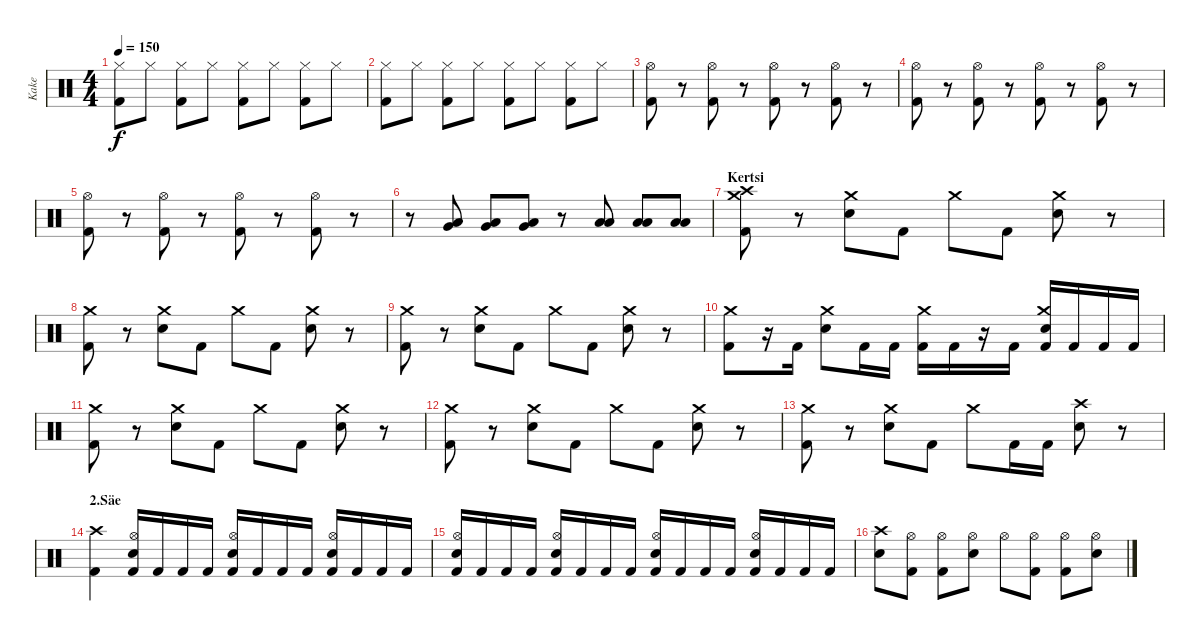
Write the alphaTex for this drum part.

\track ("Kake" "Kake") {instrument percussion}
\staff {score}
\articulation defaults
\ts (4 4)
\tempo 150
\clef neutral
\ks c
("Hi-Hat (closed)" "Kick (hit) 2").8{dy f} "Hi-Hat (closed)".8 ("Hi-Hat (closed)" "Kick (hit) 2").8 "Hi-Hat (closed)".8 ("Hi-Hat (closed)" "Kick (hit) 2").8 "Hi-Hat (closed)".8 ("Hi-Hat (closed)" "Kick (hit) 2").8 "Hi-Hat (closed)".8 |
("Hi-Hat (closed)" "Kick (hit) 2").8 "Hi-Hat (closed)".8 ("Hi-Hat (closed)" "Kick (hit) 2").8 "Hi-Hat (closed)".8 ("Hi-Hat (closed)" "Kick (hit) 2").8 "Hi-Hat (closed)".8 ("Hi-Hat (closed)" "Kick (hit) 2").8 "Hi-Hat (closed)".8 |
("Hi-Hat (open)" "Kick (hit) 2").8 r.8 ("Hi-Hat (open)" "Kick (hit) 2").8 r.8 ("Hi-Hat (open)" "Kick (hit) 2").8 r.8 ("Hi-Hat (open)" "Kick (hit) 2").8 r.8 |
("Hi-Hat (open)" "Kick (hit) 2").8 r.8 ("Hi-Hat (open)" "Kick (hit) 2").8 r.8 ("Hi-Hat (open)" "Kick (hit) 2").8 r.8 ("Hi-Hat (open)" "Kick (hit) 2").8 r.8 |
("Hi-Hat (open)" "Kick (hit) 2").8 r.8 ("Hi-Hat (open)" "Kick (hit) 2").8 r.8 ("Hi-Hat (open)" "Kick (hit) 2").8 r.8 ("Hi-Hat (open)" "Kick (hit) 2").8 r.8 |
r.8 ("Very Low Tom (hit)" "Low Floor Tom (hit)").8 ("Very Low Tom (hit)" "Low Floor Tom (hit)").8 ("Very Low Tom (hit)" "Low Floor Tom (hit)").8 r.8 ("Low Tom (hit)" "Low Floor Tom (hit)").8 ("Low Tom (hit)" "Low Floor Tom (hit)").8 ("Low Tom (hit)" "Low Floor Tom (hit)").8 |
\section ("" "Kertsi")
("Crash medium (hit)" "Crash high (hit)" "Kick (hit) 2").8 r.8 ("Crash medium (hit)" "Electric Snare (hit)").8 "Kick (hit) 2".8 "Crash medium (hit)".8 "Kick (hit) 2".8 ("Crash medium (hit)" "Electric Snare (hit)").8 r.8 |
("Crash medium (hit)" "Kick (hit) 2").8 r.8 ("Crash medium (hit)" "Electric Snare (hit)").8 "Kick (hit) 2".8 "Crash medium (hit)".8 "Kick (hit) 2".8 ("Crash medium (hit)" "Electric Snare (hit)").8 r.8 |
("Crash medium (hit)" "Kick (hit) 2").8 r.8 ("Crash medium (hit)" "Electric Snare (hit)").8 "Kick (hit) 2".8 "Crash medium (hit)".8 "Kick (hit) 2".8 ("Crash medium (hit)" "Electric Snare (hit)").8 r.8 |
("Crash medium (hit)" "Kick (hit) 2").8 r.16 "Kick (hit) 2".16 ("Crash medium (hit)" "Electric Snare (hit)").8 "Kick (hit) 2".16 "Kick (hit) 2".16 ("Crash medium (hit)" "Kick (hit) 2").16 "Kick (hit) 2".16 r.16 "Kick (hit) 2".16 ("Crash medium (hit)" "Electric Snare (hit)" "Kick (hit) 2").16 "Kick (hit) 2".16 "Kick (hit) 2".16 "Kick (hit) 2".16 |
("Crash medium (hit)" "Kick (hit) 2").8 r.8 ("Crash medium (hit)" "Electric Snare (hit)").8 "Kick (hit) 2".8 "Crash medium (hit)".8 "Kick (hit) 2".8 ("Crash medium (hit)" "Electric Snare (hit)").8 r.8 |
("Crash medium (hit)" "Kick (hit) 2").8 r.8 ("Crash medium (hit)" "Electric Snare (hit)").8 "Kick (hit) 2".8 "Crash medium (hit)".8 "Kick (hit) 2".8 ("Crash medium (hit)" "Electric Snare (hit)").8 r.8 |
("Crash medium (hit)" "Kick (hit) 2").8 r.8 ("Crash medium (hit)" "Electric Snare (hit)").8 "Kick (hit) 2".8 "Crash medium (hit)".8 "Kick (hit) 2".16 "Kick (hit) 2".16 ("Crash high (hit)" "Electric Snare (hit)").8 r.8 |
\section ("" "2.Säe")
("Crash high (hit)" "Kick (hit) 2").4 ("Hi-Hat (open)" "Electric Snare (hit)" "Kick (hit) 2").16 "Kick (hit) 2".16 "Kick (hit) 2".16 "Kick (hit) 2".16 ("Hi-Hat (open)" "Electric Snare (hit)" "Kick (hit) 2").16 "Kick (hit) 2".16 "Kick (hit) 2".16 "Kick (hit) 2".16 ("Hi-Hat (open)" "Electric Snare (hit)" "Kick (hit) 2").16 "Kick (hit) 2".16 "Kick (hit) 2".16 "Kick (hit) 2".16 |
("Hi-Hat (open)" "Electric Snare (hit)" "Kick (hit) 2").16 "Kick (hit) 2".16 "Kick (hit) 2".16 "Kick (hit) 2".16 ("Hi-Hat (open)" "Electric Snare (hit)" "Kick (hit) 2").16 "Kick (hit) 2".16 "Kick (hit) 2".16 "Kick (hit) 2".16 ("Hi-Hat (open)" "Electric Snare (hit)" "Kick (hit) 2").16 "Kick (hit) 2".16 "Kick (hit) 2".16 "Kick (hit) 2".16 ("Hi-Hat (open)" "Electric Snare (hit)" "Kick (hit) 2").16 "Kick (hit) 2".16 "Kick (hit) 2".16 "Kick (hit) 2".16 |
("Crash high (hit)" "Electric Snare (hit)").8 ("Hi-Hat (open)" "Kick (hit) 2").8 ("Hi-Hat (open)" "Kick (hit) 2").8 ("Hi-Hat (open)" "Electric Snare (hit)").8 "Hi-Hat (open)".8 ("Hi-Hat (open)" "Kick (hit) 2").8 ("Hi-Hat (open)" "Kick (hit) 2").8 ("Hi-Hat (open)" "Electric Snare (hit)").8
